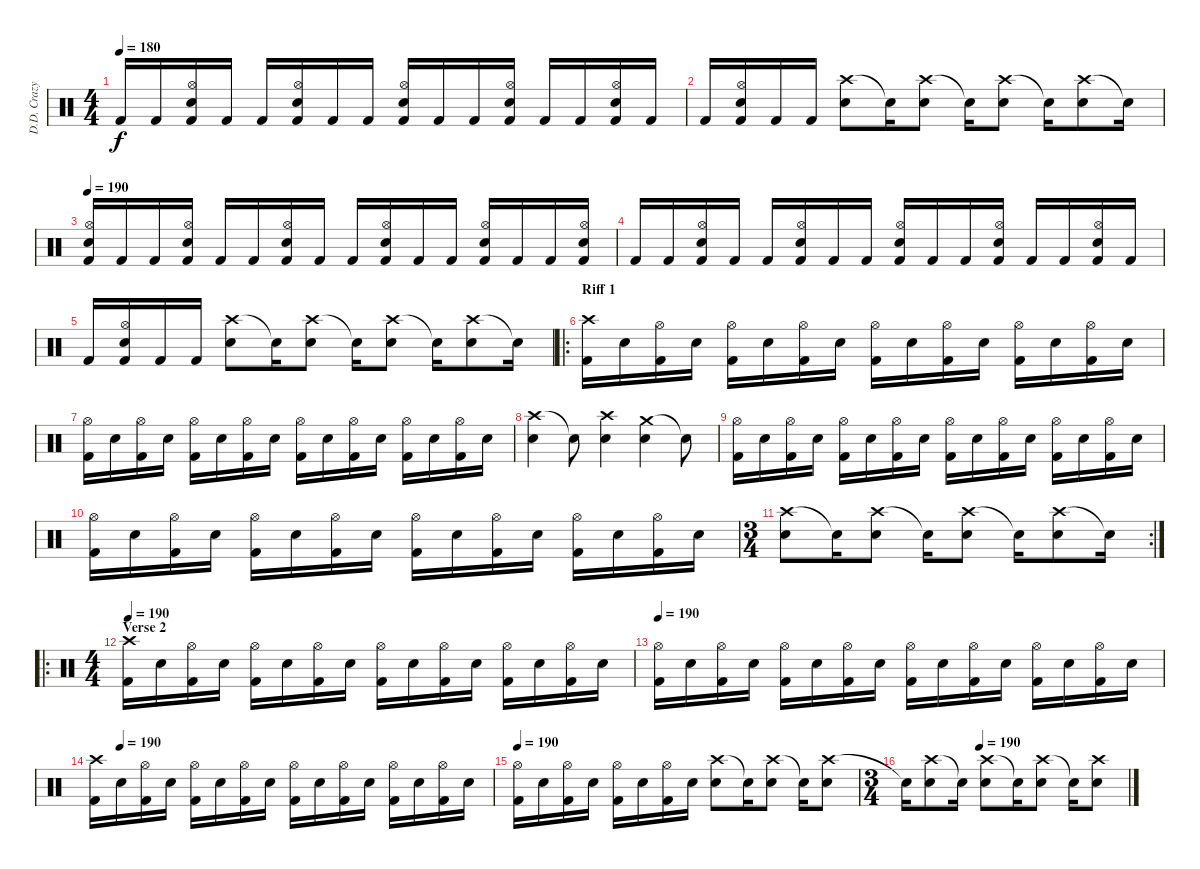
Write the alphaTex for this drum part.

\track ("D.D. Crazy" "D.D. Crazy") {instrument percussion}
\staff {score}
\articulation defaults
\ts (4 4)
\tempo 180
\clef neutral
\ks c "Kick (hit) 2".16{dy f} "Kick (hit) 2".16
("Hi-Hat (open)" "Snare (hit) 2" "Kick (hit) 2").16 "Kick (hit) 2".16 "Kick (hit) 2".16 ("Hi-Hat (open)" "Snare (hit) 2" "Kick (hit) 2").16 "Kick (hit) 2".16 "Kick (hit) 2".16 ("Hi-Hat (open)" "Snare (hit) 2" "Kick (hit) 2").16 "Kick (hit) 2".16 "Kick (hit) 2".16 ("Hi-Hat (open)" "Snare (hit) 2" "Kick (hit) 2").16 "Kick (hit) 2".16 "Kick (hit) 2".16 ("Hi-Hat (open)" "Snare (hit) 2" "Kick (hit) 2").16 "Kick (hit) 2".16 |
"Kick (hit) 2".16 ("Hi-Hat (open)" "Snare (hit) 2" "Kick (hit) 2").16 "Kick (hit) 2".16 "Kick (hit) 2".16 ("Crash high (hit)" "Snare (hit) 2").8 "Snare (hit)"{t}.16 ("Crash high (hit)" "Snare (hit) 2").8 "Snare (hit)"{t}.16 ("Crash high (hit)" "Snare (hit) 2").8 "Snare (hit)"{t}.16 ("Crash high (hit)" "Snare (hit) 2").8 "Snare (hit)"{t}.16 |
\tempo 190
("Hi-Hat (open)" "Snare (hit) 2" "Kick (hit) 2").16 "Kick (hit) 2".16 "Kick (hit) 2".16 ("Hi-Hat (open)" "Snare (hit) 2" "Kick (hit) 2").16 "Kick (hit) 2".16 "Kick (hit) 2".16 ("Hi-Hat (open)" "Snare (hit) 2" "Kick (hit) 2").16 "Kick (hit) 2".16 "Kick (hit) 2".16 ("Hi-Hat (open)" "Snare (hit) 2" "Kick (hit) 2").16 "Kick (hit) 2".16 "Kick (hit) 2".16 ("Hi-Hat (open)" "Snare (hit) 2" "Kick (hit) 2").16 "Kick (hit) 2".16 "Kick (hit) 2".16 ("Hi-Hat (open)" "Snare (hit) 2" "Kick (hit) 2").16 |
"Kick (hit) 2".16 "Kick (hit) 2".16 ("Hi-Hat (open)" "Snare (hit) 2" "Kick (hit) 2").16 "Kick (hit) 2".16 "Kick (hit) 2".16 ("Hi-Hat (open)" "Snare (hit) 2" "Kick (hit) 2").16 "Kick (hit) 2".16 "Kick (hit) 2".16 ("Hi-Hat (open)" "Snare (hit) 2" "Kick (hit) 2").16 "Kick (hit) 2".16 "Kick (hit) 2".16 ("Hi-Hat (open)" "Snare (hit) 2" "Kick (hit) 2").16 "Kick (hit) 2".16 "Kick (hit) 2".16 ("Hi-Hat (open)" "Snare (hit) 2" "Kick (hit) 2").16 "Kick (hit) 2".16 |
"Kick (hit) 2".16 ("Hi-Hat (open)" "Snare (hit) 2" "Kick (hit) 2").16 "Kick (hit) 2".16 "Kick (hit) 2".16 ("Crash high (hit)" "Snare (hit) 2").8 "Snare (hit)"{t}.16 ("Crash high (hit)" "Snare (hit) 2").8 "Snare (hit)"{t}.16 ("Crash high (hit)" "Snare (hit) 2").8 "Snare (hit)"{t}.16 ("Crash high (hit)" "Snare (hit) 2").8 "Snare (hit)"{t}.16 |
\ro
\section ("" "Riff 1")
("Crash high (hit)" "Kick (hit) 2").16 "Snare (hit) 2".16 ("Hi-Hat (open)" "Kick (hit) 2").16 "Snare (hit) 2".16 ("Hi-Hat (open)" "Kick (hit) 2").16 "Snare (hit) 2".16 ("Hi-Hat (open)" "Kick (hit) 2").16 "Snare (hit) 2".16 ("Hi-Hat (open)" "Kick (hit) 2").16 "Snare (hit) 2".16 ("Hi-Hat (open)" "Kick (hit) 2").16 "Snare (hit) 2".16 ("Hi-Hat (open)" "Kick (hit) 2").16 "Snare (hit) 2".16 ("Hi-Hat (open)" "Kick (hit) 2").16 "Snare (hit) 2".16 |
("Hi-Hat (open)" "Kick (hit) 2").16 "Snare (hit) 2".16 ("Hi-Hat (open)" "Kick (hit) 2").16 "Snare (hit) 2".16 ("Hi-Hat (open)" "Kick (hit) 2").16 "Snare (hit) 2".16 ("Hi-Hat (open)" "Kick (hit) 2").16 "Snare (hit) 2".16 ("Hi-Hat (open)" "Kick (hit) 2").16 "Snare (hit) 2".16 ("Hi-Hat (open)" "Kick (hit) 2").16 "Snare (hit) 2".16 ("Hi-Hat (open)" "Kick (hit) 2").16 "Snare (hit) 2".16 ("Hi-Hat (open)" "Kick (hit) 2").16 "Snare (hit) 2".16 |
("Crash high (hit)" "Snare (hit) 2").4 "Snare (hit)"{t}.8 ("Crash high (hit)" "Snare (hit) 2").4 ("Crash medium (hit)" "Snare (hit) 2").4 "Snare (hit)"{t}.8 |
("Hi-Hat (open)" "Kick (hit) 2").16 "Snare (hit) 2".16 ("Hi-Hat (open)" "Kick (hit) 2").16 "Snare (hit) 2".16 ("Hi-Hat (open)" "Kick (hit) 2").16 "Snare (hit) 2".16 ("Hi-Hat (open)" "Kick (hit) 2").16 "Snare (hit) 2".16 ("Hi-Hat (open)" "Kick (hit) 2").16 "Snare (hit) 2".16 ("Hi-Hat (open)" "Kick (hit) 2").16 "Snare (hit) 2".16 ("Hi-Hat (open)" "Kick (hit) 2").16 "Snare (hit) 2".16 ("Hi-Hat (open)" "Kick (hit) 2").16 "Snare (hit) 2".16 |
("Hi-Hat (open)" "Kick (hit) 2").16 "Snare (hit) 2".16 ("Hi-Hat (open)" "Kick (hit) 2").16 "Snare (hit) 2".16 ("Hi-Hat (open)" "Kick (hit) 2").16 "Snare (hit) 2".16 ("Hi-Hat (open)" "Kick (hit) 2").16 "Snare (hit) 2".16 ("Hi-Hat (open)" "Kick (hit) 2").16 "Snare (hit) 2".16 ("Hi-Hat (open)" "Kick (hit) 2").16 "Snare (hit) 2".16 ("Hi-Hat (open)" "Kick (hit) 2").16 "Snare (hit) 2".16 ("Hi-Hat (open)" "Kick (hit) 2").16 "Snare (hit) 2".16 |
\rc 2
\ts (3 4)
("Crash high (hit)" "Snare (hit) 2").8 "Snare (hit)"{t}.16 ("Crash high (hit)" "Snare (hit) 2").8 "Snare (hit)"{t}.16 ("Crash high (hit)" "Snare (hit) 2").8 "Snare (hit)"{t}.16 ("Crash high (hit)" "Snare (hit) 2").8 "Snare (hit)"{t}.16 |
\ro
\ts (4 4)
\section ("" "Verse 2")
\tempo 190
("Crash high (hit)" "Kick (hit) 2").16 "Snare (hit) 2".16 ("Hi-Hat (open)" "Kick (hit) 2").16 "Snare (hit) 2".16 ("Hi-Hat (open)" "Kick (hit) 2").16 "Snare (hit) 2".16 ("Hi-Hat (open)" "Kick (hit) 2").16 "Snare (hit) 2".16 ("Hi-Hat (open)" "Kick (hit) 2").16 "Snare (hit) 2".16 ("Hi-Hat (open)" "Kick (hit) 2").16 "Snare (hit) 2".16 ("Hi-Hat (open)" "Kick (hit) 2").16 "Snare (hit) 2".16 ("Hi-Hat (open)" "Kick (hit) 2").16 "Snare (hit) 2".16 |
\tempo 190
("Hi-Hat (open)" "Kick (hit) 2").16 "Snare (hit) 2".16 ("Hi-Hat (open)" "Kick (hit) 2").16 "Snare (hit) 2".16 ("Hi-Hat (open)" "Kick (hit) 2").16 "Snare (hit) 2".16 ("Hi-Hat (open)" "Kick (hit) 2").16 "Snare (hit) 2".16 ("Hi-Hat (open)" "Kick (hit) 2").16 "Snare (hit) 2".16 ("Hi-Hat (open)" "Kick (hit) 2").16 "Snare (hit) 2".16 ("Hi-Hat (open)" "Kick (hit) 2").16 "Snare (hit) 2".16 ("Hi-Hat (open)" "Kick (hit) 2").16 "Snare (hit) 2".16 |
\tempo (190 0.0625)
("Crash high (hit)" "Kick (hit) 2").16 "Snare (hit) 2".16 ("Hi-Hat (open)" "Kick (hit) 2").16 "Snare (hit) 2".16 ("Hi-Hat (open)" "Kick (hit) 2").16 "Snare (hit) 2".16 ("Hi-Hat (open)" "Kick (hit) 2").16 "Snare (hit) 2".16 ("Hi-Hat (open)" "Kick (hit) 2").16 "Snare (hit) 2".16 ("Hi-Hat (open)" "Kick (hit) 2").16 "Snare (hit) 2".16 ("Hi-Hat (open)" "Kick (hit) 2").16 "Snare (hit) 2".16 ("Hi-Hat (open)" "Kick (hit) 2").16 "Snare (hit) 2".16 |
\tempo 190
("Hi-Hat (open)" "Kick (hit) 2").16 "Snare (hit) 2".16 ("Hi-Hat (open)" "Kick (hit) 2").16 "Snare (hit) 2".16 ("Hi-Hat (open)" "Kick (hit) 2").16 "Snare (hit) 2".16 ("Hi-Hat (open)" "Kick (hit) 2").16 "Snare (hit) 2".16 ("Crash high (hit)" "Snare (hit) 2").8 "Snare (hit)"{t}.16 ("Crash high (hit)" "Snare (hit) 2").8 "Snare (hit)"{t}.16 ("Crash high (hit)" "Snare (hit) 2").8 |
\ts (3 4)
\tempo (190 0.3333333333333333)
"Snare (hit)"{t}.16 ("Crash high (hit)" "Snare (hit) 2").8 "Snare (hit)"{t}.16 ("Crash high (hit)" "Snare (hit) 2").8 "Snare (hit)"{t}.16 ("Crash high (hit)" "Snare (hit) 2").8 "Snare (hit)"{t}.16 ("Crash high (hit)" "Snare (hit) 2").8
